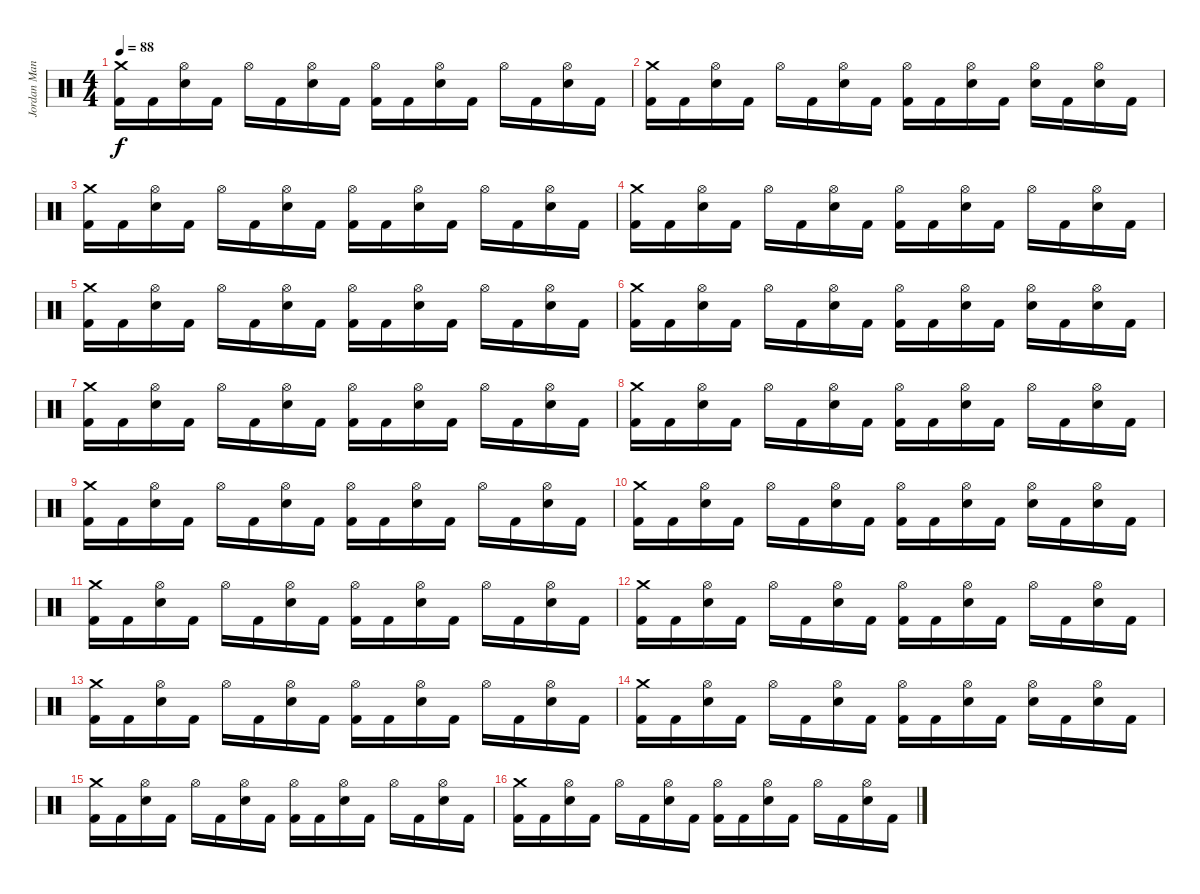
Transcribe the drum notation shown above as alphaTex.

\track ("Jordan Mancino" "Jordan Man") {instrument percussion}
\staff {score}
\articulation defaults
\ts (4 4)
\tempo 88
\clef neutral
\ks c
("Crash medium (hit)" "Kick (hit) 2").16{dy f} "Kick (hit) 2".16 ("Hi-Hat (open)" "Electric Snare (hit)").16 "Kick (hit) 2".16 "Hi-Hat (open)".16 "Kick (hit) 2".16 ("Hi-Hat (open)" "Electric Snare (hit)").16 "Kick (hit) 2".16 ("Hi-Hat (open)" "Kick (hit) 2").16 "Kick (hit) 2".16 ("Hi-Hat (open)" "Electric Snare (hit)").16 "Kick (hit) 2".16 "Hi-Hat (open)".16 "Kick (hit) 2".16 ("Hi-Hat (open)" "Electric Snare (hit)").16 "Kick (hit) 2".16 |
("Crash medium (hit)" "Kick (hit) 2").16 "Kick (hit) 2".16 ("Hi-Hat (open)" "Electric Snare (hit)").16 "Kick (hit) 2".16 "Hi-Hat (open)".16 "Kick (hit) 2".16 ("Hi-Hat (open)" "Electric Snare (hit)").16 "Kick (hit) 2".16 ("Hi-Hat (open)" "Kick (hit) 2").16 "Kick (hit) 2".16 ("Hi-Hat (open)" "Electric Snare (hit)").16 "Kick (hit) 2".16 ("Hi-Hat (open)" "Electric Snare (hit)").16 "Kick (hit) 2".16 ("Hi-Hat (open)" "Electric Snare (hit)").16 "Kick (hit) 2".16 |
("Crash medium (hit)" "Kick (hit) 2").16 "Kick (hit) 2".16 ("Hi-Hat (open)" "Electric Snare (hit)").16 "Kick (hit) 2".16 "Hi-Hat (open)".16 "Kick (hit) 2".16 ("Hi-Hat (open)" "Electric Snare (hit)").16 "Kick (hit) 2".16 ("Hi-Hat (open)" "Kick (hit) 2").16 "Kick (hit) 2".16 ("Hi-Hat (open)" "Electric Snare (hit)").16 "Kick (hit) 2".16 "Hi-Hat (open)".16 "Kick (hit) 2".16 ("Hi-Hat (open)" "Electric Snare (hit)").16 "Kick (hit) 2".16 |
("Crash medium (hit)" "Kick (hit) 2").16 "Kick (hit) 2".16 ("Hi-Hat (open)" "Electric Snare (hit)").16 "Kick (hit) 2".16 "Hi-Hat (open)".16 "Kick (hit) 2".16 ("Hi-Hat (open)" "Electric Snare (hit)").16 "Kick (hit) 2".16 ("Hi-Hat (open)" "Kick (hit) 2").16 "Kick (hit) 2".16 ("Hi-Hat (open)" "Electric Snare (hit)").16 "Kick (hit) 2".16 "Hi-Hat (open)".16 "Kick (hit) 2".16 ("Hi-Hat (open)" "Electric Snare (hit)").16 "Kick (hit) 2".16 |
("Crash medium (hit)" "Kick (hit) 2").16 "Kick (hit) 2".16 ("Hi-Hat (open)" "Electric Snare (hit)").16 "Kick (hit) 2".16 "Hi-Hat (open)".16 "Kick (hit) 2".16 ("Hi-Hat (open)" "Electric Snare (hit)").16 "Kick (hit) 2".16 ("Hi-Hat (open)" "Kick (hit) 2").16 "Kick (hit) 2".16 ("Hi-Hat (open)" "Electric Snare (hit)").16 "Kick (hit) 2".16 "Hi-Hat (open)".16 "Kick (hit) 2".16 ("Hi-Hat (open)" "Electric Snare (hit)").16 "Kick (hit) 2".16 |
("Crash medium (hit)" "Kick (hit) 2").16 "Kick (hit) 2".16 ("Hi-Hat (open)" "Electric Snare (hit)").16 "Kick (hit) 2".16 "Hi-Hat (open)".16 "Kick (hit) 2".16 ("Hi-Hat (open)" "Electric Snare (hit)").16 "Kick (hit) 2".16 ("Hi-Hat (open)" "Kick (hit) 2").16 "Kick (hit) 2".16 ("Hi-Hat (open)" "Electric Snare (hit)").16 "Kick (hit) 2".16 ("Hi-Hat (open)" "Electric Snare (hit)").16 "Kick (hit) 2".16 ("Hi-Hat (open)" "Electric Snare (hit)").16 "Kick (hit) 2".16 |
("Crash medium (hit)" "Kick (hit) 2").16 "Kick (hit) 2".16 ("Hi-Hat (open)" "Electric Snare (hit)").16 "Kick (hit) 2".16 "Hi-Hat (open)".16 "Kick (hit) 2".16 ("Hi-Hat (open)" "Electric Snare (hit)").16 "Kick (hit) 2".16 ("Hi-Hat (open)" "Kick (hit) 2").16 "Kick (hit) 2".16 ("Hi-Hat (open)" "Electric Snare (hit)").16 "Kick (hit) 2".16 "Hi-Hat (open)".16 "Kick (hit) 2".16 ("Hi-Hat (open)" "Electric Snare (hit)").16 "Kick (hit) 2".16 |
("Crash medium (hit)" "Kick (hit) 2").16 "Kick (hit) 2".16 ("Hi-Hat (open)" "Electric Snare (hit)").16 "Kick (hit) 2".16 "Hi-Hat (open)".16 "Kick (hit) 2".16 ("Hi-Hat (open)" "Electric Snare (hit)").16 "Kick (hit) 2".16 ("Hi-Hat (open)" "Kick (hit) 2").16 "Kick (hit) 2".16 ("Hi-Hat (open)" "Electric Snare (hit)").16 "Kick (hit) 2".16 "Hi-Hat (open)".16 "Kick (hit) 2".16 ("Hi-Hat (open)" "Electric Snare (hit)").16 "Kick (hit) 2".16 |
("Crash medium (hit)" "Kick (hit) 2").16 "Kick (hit) 2".16 ("Hi-Hat (open)" "Electric Snare (hit)").16 "Kick (hit) 2".16 "Hi-Hat (open)".16 "Kick (hit) 2".16 ("Hi-Hat (open)" "Electric Snare (hit)").16 "Kick (hit) 2".16 ("Hi-Hat (open)" "Kick (hit) 2").16 "Kick (hit) 2".16 ("Hi-Hat (open)" "Electric Snare (hit)").16 "Kick (hit) 2".16 "Hi-Hat (open)".16 "Kick (hit) 2".16 ("Hi-Hat (open)" "Electric Snare (hit)").16 "Kick (hit) 2".16 |
("Crash medium (hit)" "Kick (hit) 2").16 "Kick (hit) 2".16 ("Hi-Hat (open)" "Electric Snare (hit)").16 "Kick (hit) 2".16 "Hi-Hat (open)".16 "Kick (hit) 2".16 ("Hi-Hat (open)" "Electric Snare (hit)").16 "Kick (hit) 2".16 ("Hi-Hat (open)" "Kick (hit) 2").16 "Kick (hit) 2".16 ("Hi-Hat (open)" "Electric Snare (hit)").16 "Kick (hit) 2".16 ("Hi-Hat (open)" "Electric Snare (hit)").16 "Kick (hit) 2".16 ("Hi-Hat (open)" "Electric Snare (hit)").16 "Kick (hit) 2".16 |
("Crash medium (hit)" "Kick (hit) 2").16 "Kick (hit) 2".16 ("Hi-Hat (open)" "Electric Snare (hit)").16 "Kick (hit) 2".16 "Hi-Hat (open)".16 "Kick (hit) 2".16 ("Hi-Hat (open)" "Electric Snare (hit)").16 "Kick (hit) 2".16 ("Hi-Hat (open)" "Kick (hit) 2").16 "Kick (hit) 2".16 ("Hi-Hat (open)" "Electric Snare (hit)").16 "Kick (hit) 2".16 "Hi-Hat (open)".16 "Kick (hit) 2".16 ("Hi-Hat (open)" "Electric Snare (hit)").16 "Kick (hit) 2".16 |
("Crash medium (hit)" "Kick (hit) 2").16 "Kick (hit) 2".16 ("Hi-Hat (open)" "Electric Snare (hit)").16 "Kick (hit) 2".16 "Hi-Hat (open)".16 "Kick (hit) 2".16 ("Hi-Hat (open)" "Electric Snare (hit)").16 "Kick (hit) 2".16 ("Hi-Hat (open)" "Kick (hit) 2").16 "Kick (hit) 2".16 ("Hi-Hat (open)" "Electric Snare (hit)").16 "Kick (hit) 2".16 "Hi-Hat (open)".16 "Kick (hit) 2".16 ("Hi-Hat (open)" "Electric Snare (hit)").16 "Kick (hit) 2".16 |
("Crash medium (hit)" "Kick (hit) 2").16 "Kick (hit) 2".16 ("Hi-Hat (open)" "Electric Snare (hit)").16 "Kick (hit) 2".16 "Hi-Hat (open)".16 "Kick (hit) 2".16 ("Hi-Hat (open)" "Electric Snare (hit)").16 "Kick (hit) 2".16 ("Hi-Hat (open)" "Kick (hit) 2").16 "Kick (hit) 2".16 ("Hi-Hat (open)" "Electric Snare (hit)").16 "Kick (hit) 2".16 "Hi-Hat (open)".16 "Kick (hit) 2".16 ("Hi-Hat (open)" "Electric Snare (hit)").16 "Kick (hit) 2".16 |
("Crash medium (hit)" "Kick (hit) 2").16 "Kick (hit) 2".16 ("Hi-Hat (open)" "Electric Snare (hit)").16 "Kick (hit) 2".16 "Hi-Hat (open)".16 "Kick (hit) 2".16 ("Hi-Hat (open)" "Electric Snare (hit)").16 "Kick (hit) 2".16 ("Hi-Hat (open)" "Kick (hit) 2").16 "Kick (hit) 2".16 ("Hi-Hat (open)" "Electric Snare (hit)").16 "Kick (hit) 2".16 ("Hi-Hat (open)" "Electric Snare (hit)").16 "Kick (hit) 2".16 ("Hi-Hat (open)" "Electric Snare (hit)").16 "Kick (hit) 2".16 |
("Crash medium (hit)" "Kick (hit) 2").16 "Kick (hit) 2".16 ("Hi-Hat (open)" "Electric Snare (hit)").16 "Kick (hit) 2".16 "Hi-Hat (open)".16 "Kick (hit) 2".16 ("Hi-Hat (open)" "Electric Snare (hit)").16 "Kick (hit) 2".16 ("Hi-Hat (open)" "Kick (hit) 2").16 "Kick (hit) 2".16 ("Hi-Hat (open)" "Electric Snare (hit)").16 "Kick (hit) 2".16 "Hi-Hat (open)".16 "Kick (hit) 2".16 ("Hi-Hat (open)" "Electric Snare (hit)").16 "Kick (hit) 2".16 |
("Crash medium (hit)" "Kick (hit) 2").16 "Kick (hit) 2".16 ("Hi-Hat (open)" "Electric Snare (hit)").16 "Kick (hit) 2".16 "Hi-Hat (open)".16 "Kick (hit) 2".16 ("Hi-Hat (open)" "Electric Snare (hit)").16 "Kick (hit) 2".16 ("Hi-Hat (open)" "Kick (hit) 2").16 "Kick (hit) 2".16 ("Hi-Hat (open)" "Electric Snare (hit)").16 "Kick (hit) 2".16 "Hi-Hat (open)".16 "Kick (hit) 2".16 ("Hi-Hat (open)" "Electric Snare (hit)").16 "Kick (hit) 2".16
